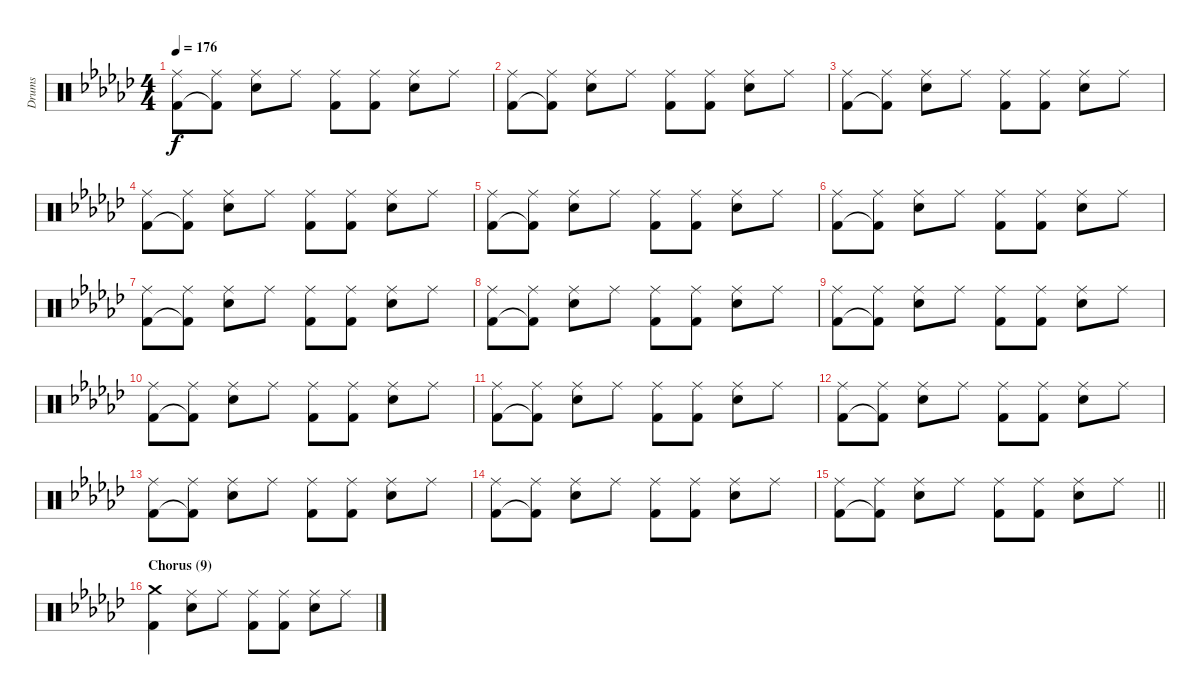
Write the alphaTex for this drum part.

\track ("Drums" "Drums") {instrument percussion}
\staff {score}
\articulation defaults
\ts (4 4)
\tempo 176
\clef neutral
\ks ebminor
("Ride (middle)" "Kick (hit) 2").8{dy f} ("Ride (middle)" "Kick (hit) 2"{t}).8 ("Ride (middle)" "Electric Snare (hit)").8 "Ride (middle)".8 ("Ride (middle)" "Kick (hit) 2").8 ("Ride (middle)" "Kick (hit) 2").8 ("Ride (middle)" "Electric Snare (hit)").8 "Ride (middle)".8 |
("Ride (middle)" "Kick (hit) 2").8 ("Ride (middle)" "Kick (hit) 2"{t}).8 ("Ride (middle)" "Electric Snare (hit)").8 "Ride (middle)".8 ("Ride (middle)" "Kick (hit) 2").8 ("Ride (middle)" "Kick (hit) 2").8 ("Ride (middle)" "Electric Snare (hit)").8 "Ride (middle)".8 |
("Ride (middle)" "Kick (hit) 2").8 ("Ride (middle)" "Kick (hit) 2"{t}).8 ("Ride (middle)" "Electric Snare (hit)").8 "Ride (middle)".8 ("Ride (middle)" "Kick (hit) 2").8 ("Ride (middle)" "Kick (hit) 2").8 ("Ride (middle)" "Electric Snare (hit)").8 "Ride (middle)".8 |
("Ride (middle)" "Kick (hit) 2").8 ("Ride (middle)" "Kick (hit) 2"{t}).8 ("Ride (middle)" "Electric Snare (hit)").8 "Ride (middle)".8 ("Ride (middle)" "Kick (hit) 2").8 ("Ride (middle)" "Kick (hit) 2").8 ("Ride (middle)" "Electric Snare (hit)").8 "Ride (middle)".8 |
("Ride (middle)" "Kick (hit) 2").8 ("Ride (middle)" "Kick (hit) 2"{t}).8 ("Ride (middle)" "Electric Snare (hit)").8 "Ride (middle)".8 ("Ride (middle)" "Kick (hit) 2").8 ("Ride (middle)" "Kick (hit) 2").8 ("Ride (middle)" "Electric Snare (hit)").8 "Ride (middle)".8 |
("Ride (middle)" "Kick (hit) 2").8 ("Ride (middle)" "Kick (hit) 2"{t}).8 ("Ride (middle)" "Electric Snare (hit)").8 "Ride (middle)".8 ("Ride (middle)" "Kick (hit) 2").8 ("Ride (middle)" "Kick (hit) 2").8 ("Ride (middle)" "Electric Snare (hit)").8 "Ride (middle)".8 |
("Ride (middle)" "Kick (hit) 2").8 ("Ride (middle)" "Kick (hit) 2"{t}).8 ("Ride (middle)" "Electric Snare (hit)").8 "Ride (middle)".8 ("Ride (middle)" "Kick (hit) 2").8 ("Ride (middle)" "Kick (hit) 2").8 ("Ride (middle)" "Electric Snare (hit)").8 "Ride (middle)".8 |
("Ride (middle)" "Kick (hit) 2").8 ("Ride (middle)" "Kick (hit) 2"{t}).8 ("Ride (middle)" "Electric Snare (hit)").8 "Ride (middle)".8 ("Ride (middle)" "Kick (hit) 2").8 ("Ride (middle)" "Kick (hit) 2").8 ("Ride (middle)" "Electric Snare (hit)").8 "Ride (middle)".8 |
("Ride (middle)" "Kick (hit) 2").8 ("Ride (middle)" "Kick (hit) 2"{t}).8 ("Ride (middle)" "Electric Snare (hit)").8 "Ride (middle)".8 ("Ride (middle)" "Kick (hit) 2").8 ("Ride (middle)" "Kick (hit) 2").8 ("Ride (middle)" "Electric Snare (hit)").8 "Ride (middle)".8 |
("Ride (middle)" "Kick (hit) 2").8 ("Ride (middle)" "Kick (hit) 2"{t}).8 ("Ride (middle)" "Electric Snare (hit)").8 "Ride (middle)".8 ("Ride (middle)" "Kick (hit) 2").8 ("Ride (middle)" "Kick (hit) 2").8 ("Ride (middle)" "Electric Snare (hit)").8 "Ride (middle)".8 |
("Ride (middle)" "Kick (hit) 2").8 ("Ride (middle)" "Kick (hit) 2"{t}).8 ("Ride (middle)" "Electric Snare (hit)").8 "Ride (middle)".8 ("Ride (middle)" "Kick (hit) 2").8 ("Ride (middle)" "Kick (hit) 2").8 ("Ride (middle)" "Electric Snare (hit)").8 "Ride (middle)".8 |
("Ride (middle)" "Kick (hit) 2").8 ("Ride (middle)" "Kick (hit) 2"{t}).8 ("Ride (middle)" "Electric Snare (hit)").8 "Ride (middle)".8 ("Ride (middle)" "Kick (hit) 2").8 ("Ride (middle)" "Kick (hit) 2").8 ("Ride (middle)" "Electric Snare (hit)").8 "Ride (middle)".8 |
("Ride (middle)" "Kick (hit) 2").8 ("Ride (middle)" "Kick (hit) 2"{t}).8 ("Ride (middle)" "Electric Snare (hit)").8 "Ride (middle)".8 ("Ride (middle)" "Kick (hit) 2").8 ("Ride (middle)" "Kick (hit) 2").8 ("Ride (middle)" "Electric Snare (hit)").8 "Ride (middle)".8 |
("Ride (middle)" "Kick (hit) 2").8 ("Ride (middle)" "Kick (hit) 2"{t}).8 ("Ride (middle)" "Electric Snare (hit)").8 "Ride (middle)".8 ("Ride (middle)" "Kick (hit) 2").8 ("Ride (middle)" "Kick (hit) 2").8 ("Ride (middle)" "Electric Snare (hit)").8 "Ride (middle)".8 |
\barLineRight lightlight
("Ride (middle)" "Kick (hit) 2").8 ("Ride (middle)" "Kick (hit) 2"{t}).8 ("Ride (middle)" "Electric Snare (hit)").8 "Ride (middle)".8 ("Ride (middle)" "Kick (hit) 2").8 ("Ride (middle)" "Kick (hit) 2").8 ("Ride (middle)" "Electric Snare (hit)").8 "Ride (middle)".8 |
\section ("" "Chorus (9)")
("Crash medium (hit)" "Kick (hit) 2").4 ("Ride (middle)" "Electric Snare (hit)").8 "Ride (middle)".8 ("Ride (middle)" "Kick (hit) 2").8 ("Ride (middle)" "Kick (hit) 2").8 ("Ride (middle)" "Electric Snare (hit)").8 "Ride (middle)".8
